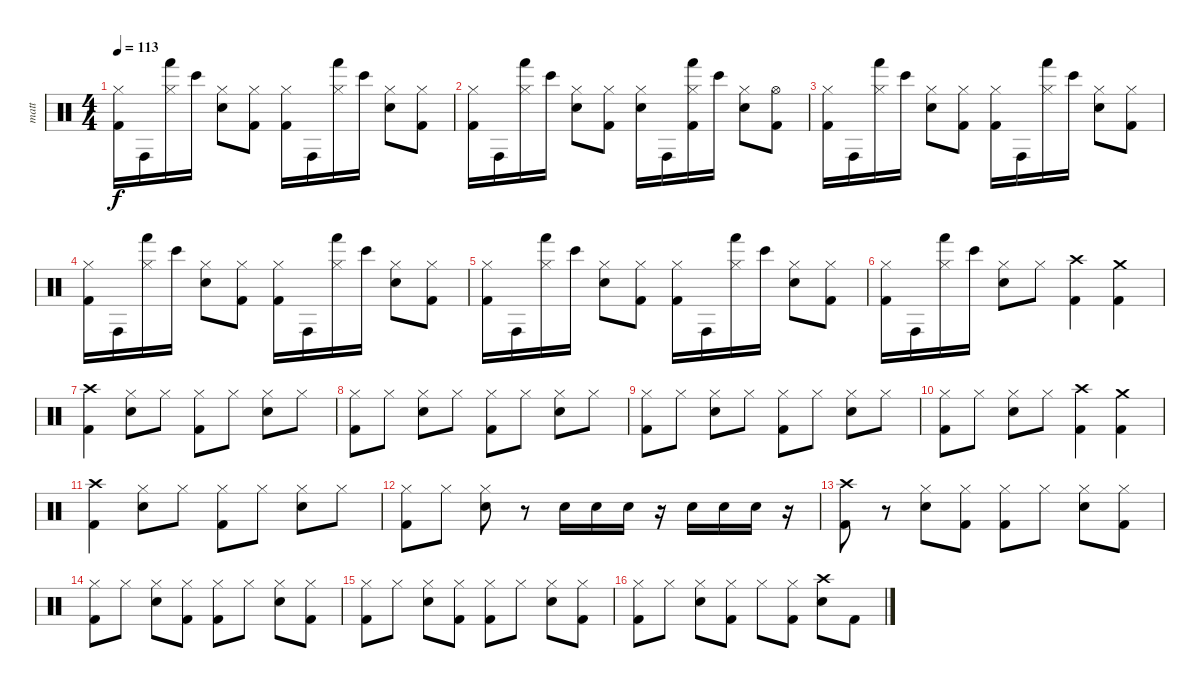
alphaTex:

\track ("matt" "matt") {instrument percussion}
\staff {score}
\articulation defaults
\ts (4 4)
\tempo 113
\clef neutral
\ks c
("Hi-Hat (closed)" "Kick (hit) 2").16{dy f} "Conga high (hit)".16 ("Hi-Hat (closed)" "Hand (hit)").16 "Bongo High (hit)".16 ("Hi-Hat (closed)" "Electric Snare (hit)").8 ("Hi-Hat (closed)" "Kick (hit) 2").8 ("Hi-Hat (closed)" "Kick (hit) 2").16 "Conga high (hit)".16 ("Hi-Hat (closed)" "Hand (hit)").16 "Bongo High (hit)".16 ("Hi-Hat (closed)" "Electric Snare (hit)").8 ("Hi-Hat (closed)" "Kick (hit) 2").8 |
("Hi-Hat (closed)" "Kick (hit) 2").16 "Conga high (hit)".16 ("Hi-Hat (closed)" "Hand (hit)").16 "Bongo High (hit)".16 ("Hi-Hat (closed)" "Electric Snare (hit)").8 ("Hi-Hat (closed)" "Kick (hit) 2").8 ("Hi-Hat (closed)" "Electric Snare (hit)").16 "Conga high (hit)".16 ("Hi-Hat (closed)" "Hand (hit)" "Kick (hit) 2").16 "Bongo High (hit)".16 ("Hi-Hat (closed)" "Electric Snare (hit)").8 ("Hi-Hat (open)" "Kick (hit) 2").8 |
("Hi-Hat (closed)" "Kick (hit) 2").16 "Conga high (hit)".16 ("Hi-Hat (closed)" "Hand (hit)").16 "Bongo High (hit)".16 ("Hi-Hat (closed)" "Electric Snare (hit)").8 ("Hi-Hat (closed)" "Kick (hit) 2").8 ("Hi-Hat (closed)" "Kick (hit) 2").16 "Conga high (hit)".16 ("Hi-Hat (closed)" "Hand (hit)").16 "Bongo High (hit)".16 ("Hi-Hat (closed)" "Electric Snare (hit)").8 ("Hi-Hat (closed)" "Kick (hit) 2").8 |
("Hi-Hat (closed)" "Kick (hit) 2").16 "Conga high (hit)".16 ("Hi-Hat (closed)" "Hand (hit)").16 "Bongo High (hit)".16 ("Hi-Hat (closed)" "Electric Snare (hit)").8 ("Hi-Hat (closed)" "Kick (hit) 2").8 ("Hi-Hat (closed)" "Kick (hit) 2").16 "Conga high (hit)".16 ("Hi-Hat (closed)" "Hand (hit)").16 "Bongo High (hit)".16 ("Hi-Hat (closed)" "Electric Snare (hit)").8 ("Hi-Hat (closed)" "Kick (hit) 2").8 |
("Hi-Hat (closed)" "Kick (hit) 2").16 "Conga high (hit)".16 ("Hi-Hat (closed)" "Hand (hit)").16 "Bongo High (hit)".16 ("Hi-Hat (closed)" "Electric Snare (hit)").8 ("Hi-Hat (closed)" "Kick (hit) 2").8 ("Hi-Hat (closed)" "Kick (hit) 2").16 "Conga high (hit)".16 ("Hi-Hat (closed)" "Hand (hit)").16 "Bongo High (hit)".16 ("Hi-Hat (closed)" "Electric Snare (hit)").8 ("Hi-Hat (closed)" "Kick (hit) 2").8 |
("Hi-Hat (closed)" "Kick (hit) 2").16 "Conga high (hit)".16 ("Hi-Hat (closed)" "Hand (hit)").16 "Bongo High (hit)".16 ("Hi-Hat (closed)" "Electric Snare (hit)").8 "Hi-Hat (closed)".8 ("Crash high (hit)" "Kick (hit) 2").4 ("Crash medium (hit)" "Kick (hit) 2").4 |
("Crash high (hit)" "Kick (hit) 2").4 ("Hi-Hat (closed)" "Electric Snare (hit)").8 "Hi-Hat (closed)".8 ("Hi-Hat (closed)" "Kick (hit) 2").8 "Hi-Hat (closed)".8 ("Hi-Hat (closed)" "Electric Snare (hit)").8 "Hi-Hat (closed)".8 |
("Hi-Hat (closed)" "Kick (hit) 2").8 "Hi-Hat (closed)".8 ("Hi-Hat (closed)" "Electric Snare (hit)").8 "Hi-Hat (closed)".8 ("Hi-Hat (closed)" "Kick (hit) 2").8 "Hi-Hat (closed)".8 ("Hi-Hat (closed)" "Electric Snare (hit)").8 "Hi-Hat (closed)".8 |
("Hi-Hat (closed)" "Kick (hit) 2").8 "Hi-Hat (closed)".8 ("Hi-Hat (closed)" "Electric Snare (hit)").8 "Hi-Hat (closed)".8 ("Hi-Hat (closed)" "Kick (hit) 2").8 "Hi-Hat (closed)".8 ("Hi-Hat (closed)" "Electric Snare (hit)").8 "Hi-Hat (closed)".8 |
("Hi-Hat (closed)" "Kick (hit) 2").8 "Hi-Hat (closed)".8 ("Hi-Hat (closed)" "Electric Snare (hit)").8 "Hi-Hat (closed)".8 ("Crash high (hit)" "Kick (hit) 2").4 ("Crash medium (hit)" "Kick (hit) 2").4 |
("Crash high (hit)" "Kick (hit) 2").4 ("Hi-Hat (closed)" "Electric Snare (hit)").8 "Hi-Hat (closed)".8 ("Hi-Hat (closed)" "Kick (hit) 2").8 "Hi-Hat (closed)".8 ("Hi-Hat (closed)" "Electric Snare (hit)").8 "Hi-Hat (closed)".8 |
("Hi-Hat (closed)" "Kick (hit) 2").8 "Hi-Hat (closed)".8 ("Hi-Hat (closed)" "Electric Snare (hit)").8 r.8 "Electric Snare (hit)".16 "Electric Snare (hit)".16 "Electric Snare (hit)".16 r.16 "Electric Snare (hit)".16 "Electric Snare (hit)".16 "Electric Snare (hit)".16 r.16 |
("Crash high (hit)" "Kick (hit) 2").8 r.8 ("Hi-Hat (closed)" "Electric Snare (hit)").8 ("Hi-Hat (closed)" "Kick (hit) 2").8 ("Hi-Hat (closed)" "Kick (hit) 2").8 "Hi-Hat (closed)".8 ("Hi-Hat (closed)" "Electric Snare (hit)").8 ("Hi-Hat (closed)" "Kick (hit) 2").8 |
("Hi-Hat (closed)" "Kick (hit) 2").8 "Hi-Hat (closed)".8 ("Hi-Hat (closed)" "Electric Snare (hit)").8 ("Hi-Hat (closed)" "Kick (hit) 2").8 ("Hi-Hat (closed)" "Kick (hit) 2").8 "Hi-Hat (closed)".8 ("Hi-Hat (closed)" "Electric Snare (hit)").8 ("Hi-Hat (closed)" "Kick (hit) 2").8 |
("Hi-Hat (closed)" "Kick (hit) 2").8 "Hi-Hat (closed)".8 ("Hi-Hat (closed)" "Electric Snare (hit)").8 ("Hi-Hat (closed)" "Kick (hit) 2").8 ("Hi-Hat (closed)" "Kick (hit) 2").8 "Hi-Hat (closed)".8 ("Hi-Hat (closed)" "Electric Snare (hit)").8 ("Hi-Hat (closed)" "Kick (hit) 2").8 |
("Hi-Hat (closed)" "Kick (hit) 2").8 "Hi-Hat (closed)".8 ("Hi-Hat (closed)" "Electric Snare (hit)").8 ("Hi-Hat (closed)" "Kick (hit) 2").8 "Hi-Hat (closed)".8 ("Hi-Hat (closed)" "Kick (hit) 2").8 ("Crash high (hit)" "Electric Snare (hit)").8 "Kick (hit) 2".8
